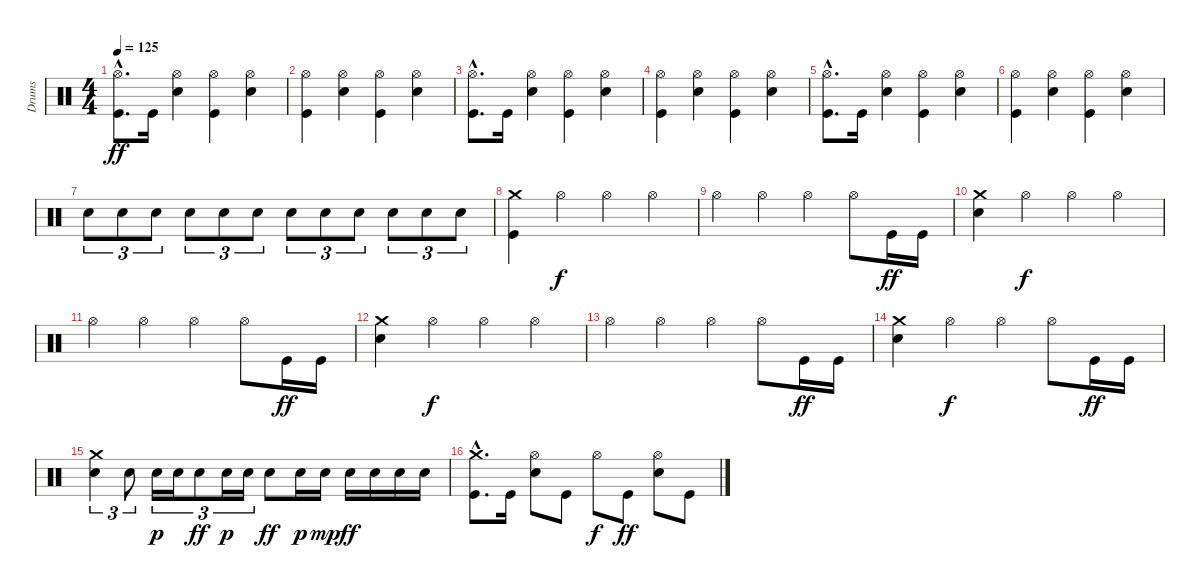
\track ("Drums" "Drums") {instrument percussion}
\staff {score}
\articulation defaults
\ts (4 4)
\tempo 125
\clef neutral
\ks c
("Hi-Hat (open)"{hac} "Kick (hit)"{hac}).8{d dy ff} "Kick (hit)".16 ("Hi-Hat (open)" "Electric Snare (hit)").4 ("Hi-Hat (open)" "Kick (hit)").4 ("Hi-Hat (open)" "Electric Snare (hit)").4 |
("Hi-Hat (open)" "Kick (hit)").4 ("Hi-Hat (open)" "Electric Snare (hit)").4 ("Hi-Hat (open)" "Kick (hit)").4 ("Hi-Hat (open)" "Electric Snare (hit)").4 |
("Hi-Hat (open)"{hac} "Kick (hit)"{hac}).8{d} "Kick (hit)".16 ("Hi-Hat (open)" "Electric Snare (hit)").4 ("Hi-Hat (open)" "Kick (hit)").4 ("Hi-Hat (open)" "Electric Snare (hit)").4 |
("Hi-Hat (open)" "Kick (hit)").4 ("Hi-Hat (open)" "Electric Snare (hit)").4 ("Hi-Hat (open)" "Kick (hit)").4 ("Hi-Hat (open)" "Electric Snare (hit)").4 |
("Hi-Hat (open)"{hac} "Kick (hit)"{hac}).8{d} "Kick (hit)".16 ("Hi-Hat (open)" "Electric Snare (hit)").4 ("Hi-Hat (open)" "Kick (hit)").4 ("Hi-Hat (open)" "Electric Snare (hit)").4 |
("Hi-Hat (open)" "Kick (hit)").4 ("Hi-Hat (open)" "Electric Snare (hit)").4 ("Hi-Hat (open)" "Kick (hit)").4 ("Hi-Hat (open)" "Electric Snare (hit)").4 |
"Electric Snare (hit)".8{tu (3 2)} "Electric Snare (hit)".8{tu (3 2)} "Electric Snare (hit)".8{tu (3 2)} "Electric Snare (hit)".8{tu (3 2)} "Electric Snare (hit)".8{tu (3 2)} "Electric Snare (hit)".8{tu (3 2)} "Electric Snare (hit)".8{tu (3 2)} "Electric Snare (hit)".8{tu (3 2)} "Electric Snare (hit)".8{tu (3 2)} "Electric Snare (hit)".8{tu (3 2)} "Electric Snare (hit)".8{tu (3 2)} "Electric Snare (hit)".8{tu (3 2)} |
("Crash medium (hit)" "Kick (hit)").4 "Hi-Hat (open)".4{dy f} "Hi-Hat (open)".4 "Hi-Hat (open)".4 |
"Hi-Hat (open)".4 "Hi-Hat (open)".4 "Hi-Hat (open)".4 "Hi-Hat (open)".8 "Kick (hit)".16{dy ff} "Kick (hit)".16 |
("Crash medium (hit)" "Electric Snare (hit)").4 "Hi-Hat (open)".4{dy f} "Hi-Hat (open)".4 "Hi-Hat (open)".4 |
"Hi-Hat (open)".4 "Hi-Hat (open)".4 "Hi-Hat (open)".4 "Hi-Hat (open)".8 "Kick (hit)".16{dy ff} "Kick (hit)".16 |
("Crash medium (hit)" "Electric Snare (hit)").4 "Hi-Hat (open)".4{dy f} "Hi-Hat (open)".4 "Hi-Hat (open)".4 |
"Hi-Hat (open)".4 "Hi-Hat (open)".4 "Hi-Hat (open)".4 "Hi-Hat (open)".8 "Kick (hit)".16{dy ff} "Kick (hit)".16 |
("Crash medium (hit)" "Electric Snare (hit)").4 "Hi-Hat (open)".4{dy f} "Hi-Hat (open)".4 "Hi-Hat (open)".8 "Kick (hit)".16{dy ff} "Kick (hit)".16 |
("Crash medium (hit)" "Electric Snare (hit)").4{tu (3 2)} "Electric Snare (hit)".8{tu (3 2)} "Electric Snare (hit)".16{tu (3 2) dy p} "Electric Snare (hit)".16{tu (3 2)} "Electric Snare (hit)".8{tu (3 2) dy ff} "Electric Snare (hit)".16{tu (3 2) dy p} "Electric Snare (hit)".16{tu (3 2)} "Electric Snare (hit)".8{dy ff} "Electric Snare (hit)".16{dy p} "Electric Snare (hit)".16{dy mp} "Electric Snare (hit)".16{dy ff} "Electric Snare (hit)".16 "Electric Snare (hit)".16 "Electric Snare (hit)".16 |
("Crash medium (hit)"{hac} "Kick (hit)"{hac}).8{d} "Kick (hit)".16 ("Hi-Hat (open)" "Electric Snare (hit)").8 "Kick (hit)".8 "Hi-Hat (open)".8{dy f} "Kick (hit)".8{dy ff} ("Hi-Hat (open)" "Electric Snare (hit)").8 "Kick (hit)".8
